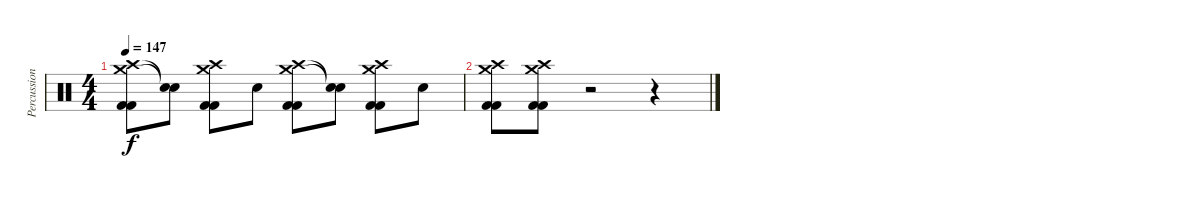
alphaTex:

\track ("Percussions" "Percussion") {instrument percussion}
\staff {score}
\articulation defaults
\ts (4 4)
\tempo 147
\clef neutral
\ks c
("Crash medium (hit)" "Crash high (hit)" "Kick (hit) 2" "Kick (hit) 2").8{dy f} ("Snare (hit)"{t} "Snare (hit)"{t}).8 ("Crash medium (hit)" "Crash high (hit)" "Kick (hit) 2" "Kick (hit) 2").8 "Snare (hit) 2".8 ("Crash medium (hit)" "Crash high (hit)" "Kick (hit) 2" "Kick (hit) 2").8 ("Snare (hit)"{t} "Snare (hit)"{t}).8 ("Crash medium (hit)" "Crash high (hit)" "Kick (hit) 2" "Kick (hit) 2").8 "Snare (hit) 2".8 |
("Crash medium (hit)" "Crash high (hit)" "Kick (hit) 2" "Kick (hit) 2").8 ("Crash medium (hit)" "Crash high (hit)" "Kick (hit) 2" "Kick (hit) 2").8 r.2 r.4
